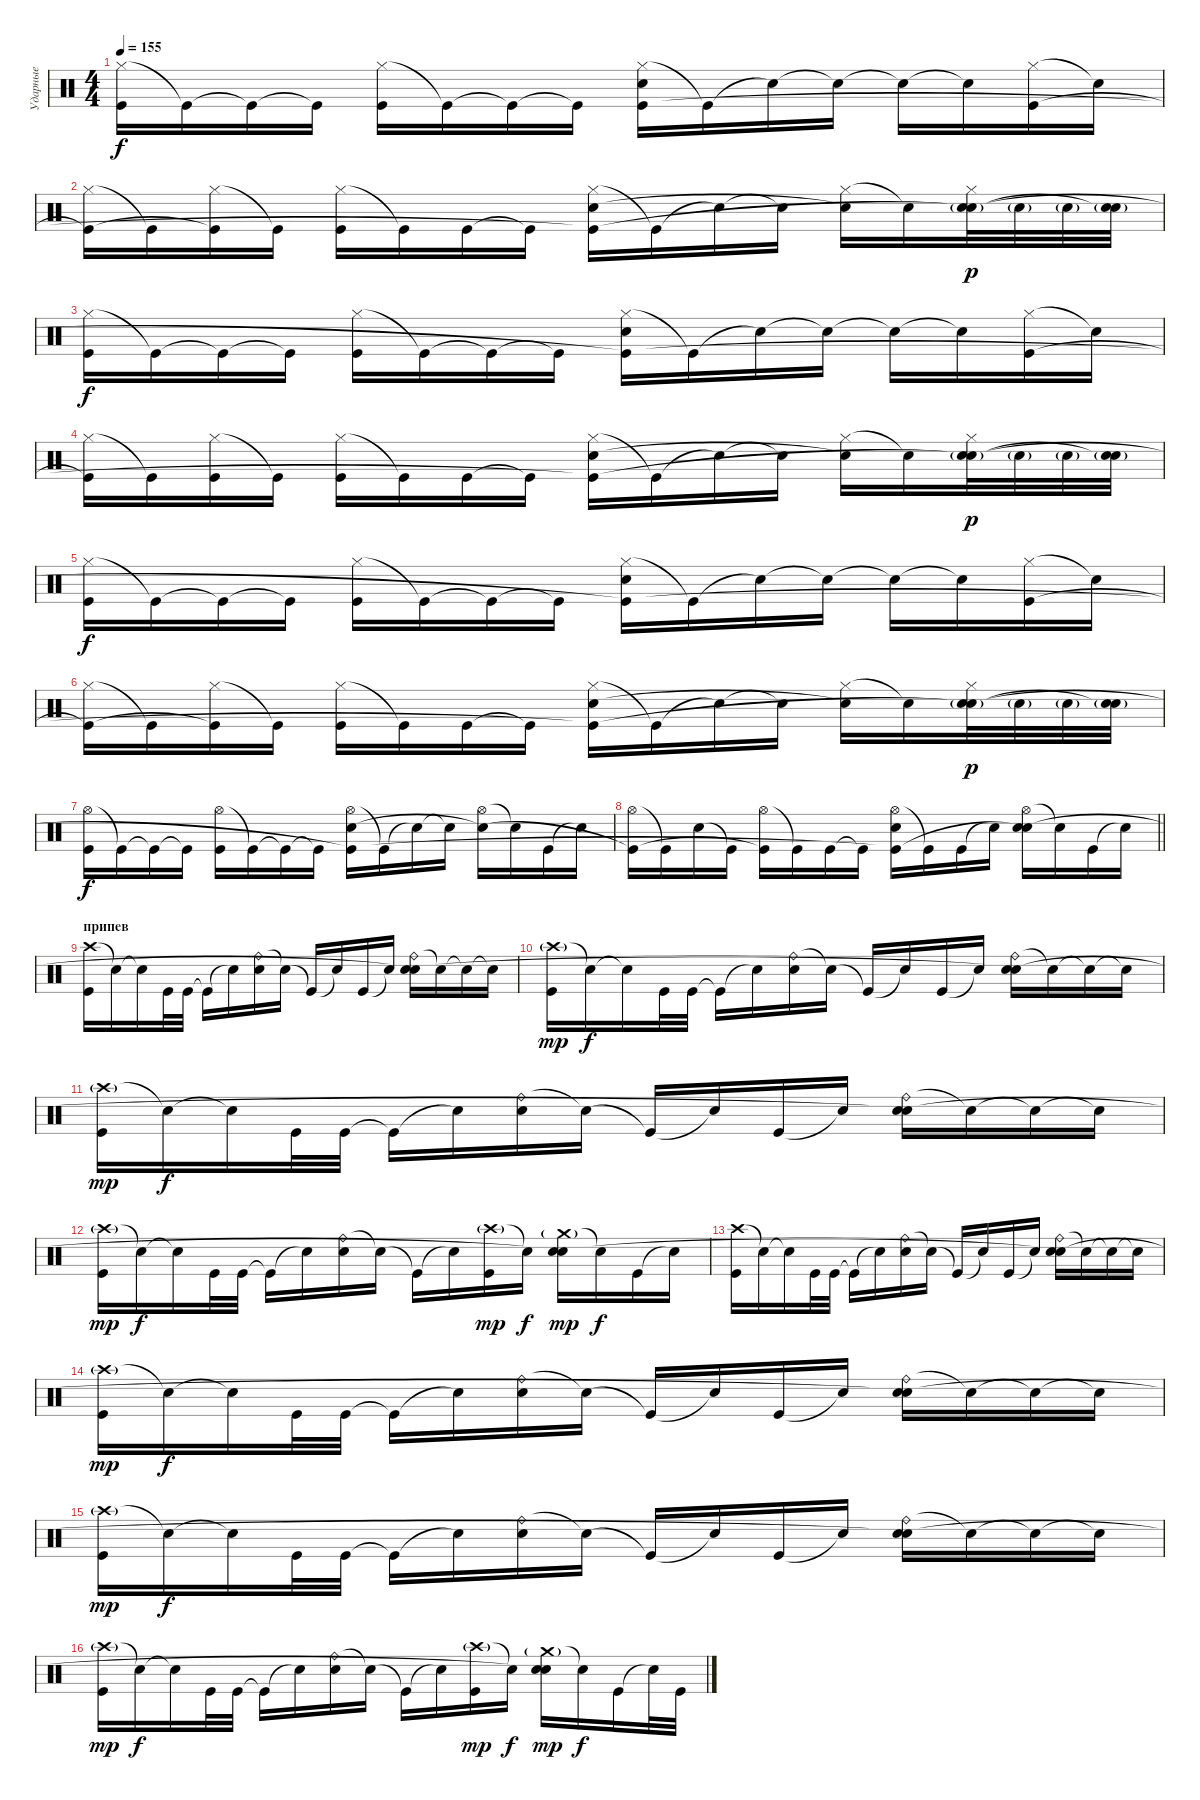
\track ("Ударные" "Ударные") {instrument percussion}
\staff {score}
\articulation defaults
\ts (4 4)
\tempo 155
\clef neutral
\ks c
("Hi-Hat (closed)" "Kick (hit)").16{dy f} "Kick (hit)"{t}.16 "Kick (hit)"{t}.16 "Kick (hit)"{t}.16 ("Hi-Hat (closed)" "Kick (hit)").16 "Kick (hit)"{t}.16 "Kick (hit)"{t}.16 "Kick (hit)"{t}.16 ("Hi-Hat (closed)" "Electric Snare (hit)" "Kick (hit)"{t}).16 "Kick (hit)"{t}.16 "Snare (hit)"{t}.16 "Snare (hit)"{t}.16 "Snare (hit)"{t}.16 "Snare (hit)"{t}.16 ("Hi-Hat (closed)" "Kick (hit)").16 "Snare (hit)"{t}.16 |
("Hi-Hat (closed)" "Kick (hit)"{t}).16 "Kick (hit)"{t}.16 ("Hi-Hat (closed)" "Kick (hit)"{t}).16 "Kick (hit)"{t}.16 ("Hi-Hat (closed)" "Kick (hit)").16 "Kick (hit)"{t}.16 "Kick (hit)".16 "Kick (hit)"{t}.16 ("Hi-Hat (closed)" "Electric Snare (hit)" "Kick (hit)"{t}).16 "Kick (hit)"{t}.16 "Snare (hit)"{t}.16 "Snare (hit)"{t}.16 ("Hi-Hat (closed)" "Snare (hit)"{t}).16 "Snare (hit)"{t}.16 ("Hi-Hat (closed)" "Electric Snare (hit)"{g} "Snare (hit)"{t}).32{dy p} "Electric Snare (hit)"{g}.32 "Electric Snare (hit)"{g}.32 ("Electric Snare (hit)"{g} "Snare (hit)"{t}).32 |
("Hi-Hat (closed)" "Kick (hit)").16{dy f} "Kick (hit)"{t}.16 "Kick (hit)"{t}.16 "Kick (hit)"{t}.16 ("Hi-Hat (closed)" "Kick (hit)").16 "Kick (hit)"{t}.16 "Kick (hit)"{t}.16 "Kick (hit)"{t}.16 ("Hi-Hat (closed)" "Electric Snare (hit)" "Kick (hit)"{t}).16 "Kick (hit)"{t}.16 "Snare (hit)"{t}.16 "Snare (hit)"{t}.16 "Snare (hit)"{t}.16 "Snare (hit)"{t}.16 ("Hi-Hat (closed)" "Kick (hit)").16 "Snare (hit)"{t}.16 |
("Hi-Hat (closed)" "Kick (hit)"{t}).16 "Kick (hit)"{t}.16 ("Hi-Hat (closed)" "Kick (hit)").16 "Kick (hit)"{t}.16 ("Hi-Hat (closed)" "Kick (hit)").16 "Kick (hit)"{t}.16 "Kick (hit)".16 "Kick (hit)"{t}.16 ("Hi-Hat (closed)" "Electric Snare (hit)" "Kick (hit)"{t}).16 "Kick (hit)"{t}.16 "Snare (hit)"{t}.16 "Snare (hit)"{t}.16 ("Hi-Hat (closed)" "Snare (hit)"{t}).16 "Snare (hit)"{t}.16 ("Hi-Hat (closed)" "Electric Snare (hit)"{g} "Snare (hit)"{t}).32{dy p} "Electric Snare (hit)"{g}.32 "Electric Snare (hit)"{g}.32 ("Electric Snare (hit)"{g} "Snare (hit)"{t}).32 |
("Hi-Hat (closed)" "Kick (hit)").16{dy f} "Kick (hit)"{t}.16 "Kick (hit)"{t}.16 "Kick (hit)"{t}.16 ("Hi-Hat (closed)" "Kick (hit)").16 "Kick (hit)"{t}.16 "Kick (hit)"{t}.16 "Kick (hit)"{t}.16 ("Hi-Hat (closed)" "Electric Snare (hit)" "Kick (hit)"{t}).16 "Kick (hit)"{t}.16 "Snare (hit)"{t}.16 "Snare (hit)"{t}.16 "Snare (hit)"{t}.16 "Snare (hit)"{t}.16 ("Hi-Hat (closed)" "Kick (hit)").16 "Snare (hit)"{t}.16 |
("Hi-Hat (closed)" "Kick (hit)"{t}).16 "Kick (hit)"{t}.16 ("Hi-Hat (closed)" "Kick (hit)"{t}).16 "Kick (hit)"{t}.16 ("Hi-Hat (closed)" "Kick (hit)").16 "Kick (hit)"{t}.16 "Kick (hit)".16 "Kick (hit)"{t}.16 ("Hi-Hat (closed)" "Electric Snare (hit)" "Kick (hit)"{t}).16 "Kick (hit)"{t}.16 "Snare (hit)"{t}.16 "Snare (hit)"{t}.16 ("Hi-Hat (closed)" "Snare (hit)"{t}).16 "Snare (hit)"{t}.16 ("Hi-Hat (closed)" "Electric Snare (hit)"{g} "Snare (hit)"{t}).32{dy p} "Electric Snare (hit)"{g}.32 "Electric Snare (hit)"{g}.32 ("Electric Snare (hit)"{g} "Snare (hit)"{t}).32 |
("Hi-Hat (open)" "Kick (hit)").16{dy f} "Kick (hit)"{t}.16 "Kick (hit)"{t}.16 "Kick (hit)"{t}.16 ("Hi-Hat (open)" "Kick (hit)").16 "Kick (hit)"{t}.16 "Kick (hit)"{t}.16 "Kick (hit)"{t}.16 ("Hi-Hat (open)" "Electric Snare (hit)" "Kick (hit)"{t}).16 "Kick (hit)"{t}.16 "Snare (hit)"{t}.16 "Snare (hit)"{t}.16 ("Hi-Hat (open)" "Snare (hit)"{t}).16 "Snare (hit)"{t}.16 "Kick (hit)".16 "Snare (hit)"{t}.16 |
\barLineRight lightlight
("Hi-Hat (open)" "Kick (hit)"{t}).16 "Kick (hit)"{t}.16 "Electric Snare (hit)".16 "Kick (hit)"{t}.16 ("Hi-Hat (open)" "Kick (hit)"{t}).16 "Kick (hit)"{t}.16 "Kick (hit)".16 "Kick (hit)"{t}.16 ("Hi-Hat (open)" "Electric Snare (hit)" "Kick (hit)"{t}).16 "Kick (hit)"{t}.16 "Kick (hit)".16 "Snare (hit)"{t}.16 ("Hi-Hat (open)" "Electric Snare (hit)" "Snare (hit)"{t}).16 "Snare (hit)"{t}.16 "Kick (hit)".16 "Snare (hit)"{t}.16 |
\section ("" "припев")
("Crash high (hit)" "Kick (hit)").16 "Snare (hit)"{t}.16 "Snare (hit)"{t}.16 "Kick (hit)".32 "Kick (hit)".32 "Kick (hit)"{t}.16 "Snare (hit)"{t}.16 ("Ride (bell)" "Electric Snare (hit)").16 "Snare (hit)"{t}.16 "Kick (hit)"{t}.16 "Snare (hit)"{t}.16 "Kick (hit)".16 "Snare (hit)"{t}.16 ("Ride (bell)" "Electric Snare (hit)" "Snare (hit)"{t}).16 "Snare (hit)"{t}.16 "Snare (hit)"{t}.16 "Snare (hit)"{t}.16 |
("Crash high (hit)"{g} "Kick (hit)").16{dy mp} "Snare (hit)"{t}.16{dy f} "Snare (hit)"{t}.16 "Kick (hit)".32 "Kick (hit)".32 "Kick (hit)"{t}.16 "Snare (hit)"{t}.16 ("Ride (bell)" "Electric Snare (hit)").16 "Snare (hit)"{t}.16 "Kick (hit)"{t}.16 "Snare (hit)"{t}.16 "Kick (hit)".16 "Snare (hit)"{t}.16 ("Ride (bell)" "Electric Snare (hit)" "Snare (hit)"{t}).16 "Snare (hit)"{t}.16 "Snare (hit)"{t}.16 "Snare (hit)"{t}.16 |
("Crash high (hit)"{g} "Kick (hit)").16{dy mp} "Snare (hit)"{t}.16{dy f} "Snare (hit)"{t}.16 "Kick (hit)".32 "Kick (hit)".32 "Kick (hit)"{t}.16 "Snare (hit)"{t}.16 ("Ride (bell)" "Electric Snare (hit)").16 "Snare (hit)"{t}.16 "Kick (hit)"{t}.16 "Snare (hit)"{t}.16 "Kick (hit)".16 "Snare (hit)"{t}.16 ("Ride (bell)" "Electric Snare (hit)" "Snare (hit)"{t}).16 "Snare (hit)"{t}.16 "Snare (hit)"{t}.16 "Snare (hit)"{t}.16 |
("Crash high (hit)"{g} "Kick (hit)").16{dy mp} "Snare (hit)"{t}.16{dy f} "Snare (hit)"{t}.16 "Kick (hit)".32 "Kick (hit)".32 "Kick (hit)"{t}.16 "Snare (hit)"{t}.16 ("Ride (bell)" "Electric Snare (hit)").16 "Snare (hit)"{t}.16 "Kick (hit)"{t}.16 "Snare (hit)"{t}.16 ("Crash high (hit)"{g} "Kick (hit)").16{dy mp} "Snare (hit)"{t}.16{dy f} ("Crash medium (hit)"{g} "Electric Snare (hit)" "Snare (hit)"{t}).16{dy mp} "Snare (hit)"{t}.16{dy f} "Kick (hit)".16 "Snare (hit)"{t}.16 |
("Crash high (hit)" "Kick (hit)").16 "Snare (hit)"{t}.16 "Snare (hit)"{t}.16 "Kick (hit)".32 "Kick (hit)".32 "Kick (hit)"{t}.16 "Snare (hit)"{t}.16 ("Ride (bell)" "Electric Snare (hit)").16 "Snare (hit)"{t}.16 "Kick (hit)"{t}.16 "Snare (hit)"{t}.16 "Kick (hit)".16 "Snare (hit)"{t}.16 ("Ride (bell)" "Electric Snare (hit)" "Snare (hit)"{t}).16 "Snare (hit)"{t}.16 "Snare (hit)"{t}.16 "Snare (hit)"{t}.16 |
("Crash high (hit)"{g} "Kick (hit)").16{dy mp} "Snare (hit)"{t}.16{dy f} "Snare (hit)"{t}.16 "Kick (hit)".32 "Kick (hit)".32 "Kick (hit)"{t}.16 "Snare (hit)"{t}.16 ("Ride (bell)" "Electric Snare (hit)").16 "Snare (hit)"{t}.16 "Kick (hit)"{t}.16 "Snare (hit)"{t}.16 "Kick (hit)".16 "Snare (hit)"{t}.16 ("Ride (bell)" "Electric Snare (hit)" "Snare (hit)"{t}).16 "Snare (hit)"{t}.16 "Snare (hit)"{t}.16 "Snare (hit)"{t}.16 |
("Crash high (hit)"{g} "Kick (hit)").16{dy mp} "Snare (hit)"{t}.16{dy f} "Snare (hit)"{t}.16 "Kick (hit)".32 "Kick (hit)".32 "Kick (hit)"{t}.16 "Snare (hit)"{t}.16 ("Ride (bell)" "Electric Snare (hit)").16 "Snare (hit)"{t}.16 "Kick (hit)"{t}.16 "Snare (hit)"{t}.16 "Kick (hit)".16 "Snare (hit)"{t}.16 ("Ride (bell)" "Electric Snare (hit)" "Snare (hit)"{t}).16 "Snare (hit)"{t}.16 "Snare (hit)"{t}.16 "Snare (hit)"{t}.16 |
("Crash high (hit)"{g} "Kick (hit)").16{dy mp} "Snare (hit)"{t}.16{dy f} "Snare (hit)"{t}.16 "Kick (hit)".32 "Kick (hit)".32 "Kick (hit)"{t}.16 "Snare (hit)"{t}.16 ("Ride (bell)" "Electric Snare (hit)").16 "Snare (hit)"{t}.16 "Kick (hit)"{t}.16 "Snare (hit)"{t}.16 ("Crash high (hit)"{g} "Kick (hit)").16{dy mp} "Snare (hit)"{t}.16{dy f} ("Crash medium (hit)"{g} "Electric Snare (hit)" "Snare (hit)"{t}).16{dy mp} "Snare (hit)"{t}.16{dy f} "Kick (hit)".16 "Snare (hit)"{t}.32 "Kick (hit)".32
